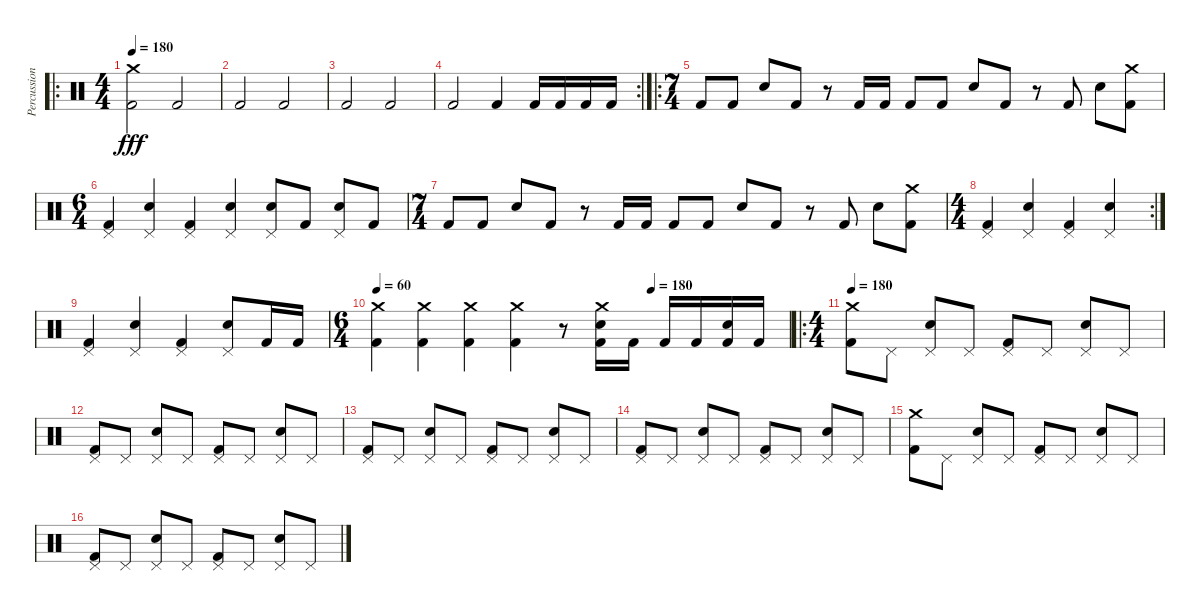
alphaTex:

\track ("Percussion" "Percussion") {instrument percussion}
\staff {score}
\articulation defaults
\ro
\ts (4 4)
\tempo 180
\clef neutral
\ks c
("Crash medium (hit)" "Kick (hit) 2").2{dy fff} "Kick (hit) 2".2 |
"Kick (hit) 2".2 "Kick (hit) 2".2 |
"Kick (hit) 2".2 "Kick (hit) 2".2 |
\rc 2 "Kick (hit) 2".2 "Kick (hit) 2".4 "Kick (hit) 2".16 "Kick (hit) 2".16 "Kick (hit) 2".16 "Kick (hit) 2".16
|
\ro
\ts (7 4)
"Kick (hit) 2".8 "Kick (hit) 2".8 "Electric Snare (hit)".8 "Kick (hit) 2".8 r.8 "Kick (hit) 2".16 "Kick (hit) 2".16 "Kick (hit) 2".8 "Kick (hit) 2".8 "Electric Snare (hit)".8 "Kick (hit) 2".8 r.8 "Kick (hit) 2".8 "Electric Snare (hit)".8 ("Crash medium (hit)" "Kick (hit) 2").8 |
\ts (6 4)
("Pedal Hi-Hat (hit)" "Kick (hit) 2").4 ("Pedal Hi-Hat (hit)" "Electric Snare (hit)").4 ("Pedal Hi-Hat (hit)" "Kick (hit) 2").4 ("Pedal Hi-Hat (hit)" "Electric Snare (hit)").4 ("Pedal Hi-Hat (hit)" "Electric Snare (hit)").8 "Kick (hit) 2".8 ("Pedal Hi-Hat (hit)" "Electric Snare (hit)").8 "Kick (hit) 2".8 |
\ts (7 4)
"Kick (hit) 2".8 "Kick (hit) 2".8 "Electric Snare (hit)".8 "Kick (hit) 2".8 r.8 "Kick (hit) 2".16 "Kick (hit) 2".16 "Kick (hit) 2".8 "Kick (hit) 2".8 "Electric Snare (hit)".8 "Kick (hit) 2".8 r.8 "Kick (hit) 2".8 "Electric Snare (hit)".8 ("Crash medium (hit)" "Kick (hit) 2").8 |
\rc 2
\ts (4 4)
("Pedal Hi-Hat (hit)" "Kick (hit) 2").4 ("Pedal Hi-Hat (hit)" "Electric Snare (hit)").4 ("Pedal Hi-Hat (hit)" "Kick (hit) 2").4 ("Pedal Hi-Hat (hit)" "Electric Snare (hit)").4 |
("Pedal Hi-Hat (hit)" "Kick (hit) 2").4 ("Pedal Hi-Hat (hit)" "Electric Snare (hit)").4 ("Pedal Hi-Hat (hit)" "Kick (hit) 2").4 ("Pedal Hi-Hat (hit)" "Electric Snare (hit)").8 "Kick (hit) 2".16 "Kick (hit) 2".16 |
\ts (6 4)
\tempo 60
\tempo (180 0.6666666666666666)
("Crash medium (hit)" "Kick (hit) 2").4 ("Crash medium (hit)" "Kick (hit) 2").4 ("Crash medium (hit)" "Kick (hit) 2").4 ("Crash medium (hit)" "Kick (hit) 2").4 r.8 ("Crash medium (hit)" "Electric Snare (hit)" "Kick (hit) 2").16 "Kick (hit) 2".16 "Kick (hit) 2".16 "Kick (hit) 2".16 ("Electric Snare (hit)" "Kick (hit) 2").16 "Kick (hit) 2".16 |
\ro
\ts (4 4)
\tempo 180
("Crash medium (hit)" "Kick (hit) 2").8 "Pedal Hi-Hat (hit)".8 ("Pedal Hi-Hat (hit)" "Electric Snare (hit)").8 "Pedal Hi-Hat (hit)".8 ("Pedal Hi-Hat (hit)" "Kick (hit) 2").8 "Pedal Hi-Hat (hit)".8 ("Pedal Hi-Hat (hit)" "Electric Snare (hit)").8 "Pedal Hi-Hat (hit)".8 |
("Pedal Hi-Hat (hit)" "Kick (hit) 2").8 "Pedal Hi-Hat (hit)".8 ("Pedal Hi-Hat (hit)" "Electric Snare (hit)").8 "Pedal Hi-Hat (hit)".8 ("Pedal Hi-Hat (hit)" "Kick (hit) 2").8 "Pedal Hi-Hat (hit)".8 ("Pedal Hi-Hat (hit)" "Electric Snare (hit)").8 "Pedal Hi-Hat (hit)".8 |
("Pedal Hi-Hat (hit)" "Kick (hit) 2").8 "Pedal Hi-Hat (hit)".8 ("Pedal Hi-Hat (hit)" "Electric Snare (hit)").8 "Pedal Hi-Hat (hit)".8 ("Pedal Hi-Hat (hit)" "Kick (hit) 2").8 "Pedal Hi-Hat (hit)".8 ("Pedal Hi-Hat (hit)" "Electric Snare (hit)").8 "Pedal Hi-Hat (hit)".8 |
("Pedal Hi-Hat (hit)" "Kick (hit) 2").8 "Pedal Hi-Hat (hit)".8 ("Pedal Hi-Hat (hit)" "Electric Snare (hit)").8 "Pedal Hi-Hat (hit)".8 ("Pedal Hi-Hat (hit)" "Kick (hit) 2").8 "Pedal Hi-Hat (hit)".8 ("Pedal Hi-Hat (hit)" "Electric Snare (hit)").8 "Pedal Hi-Hat (hit)".8 |
("Crash medium (hit)" "Kick (hit) 2").8 "Pedal Hi-Hat (hit)".8 ("Pedal Hi-Hat (hit)" "Electric Snare (hit)").8 "Pedal Hi-Hat (hit)".8 ("Pedal Hi-Hat (hit)" "Kick (hit) 2").8 "Pedal Hi-Hat (hit)".8 ("Pedal Hi-Hat (hit)" "Electric Snare (hit)").8 "Pedal Hi-Hat (hit)".8 |
("Pedal Hi-Hat (hit)" "Kick (hit) 2").8 "Pedal Hi-Hat (hit)".8 ("Pedal Hi-Hat (hit)" "Electric Snare (hit)").8 "Pedal Hi-Hat (hit)".8 ("Pedal Hi-Hat (hit)" "Kick (hit) 2").8 "Pedal Hi-Hat (hit)".8 ("Pedal Hi-Hat (hit)" "Electric Snare (hit)").8 "Pedal Hi-Hat (hit)".8
